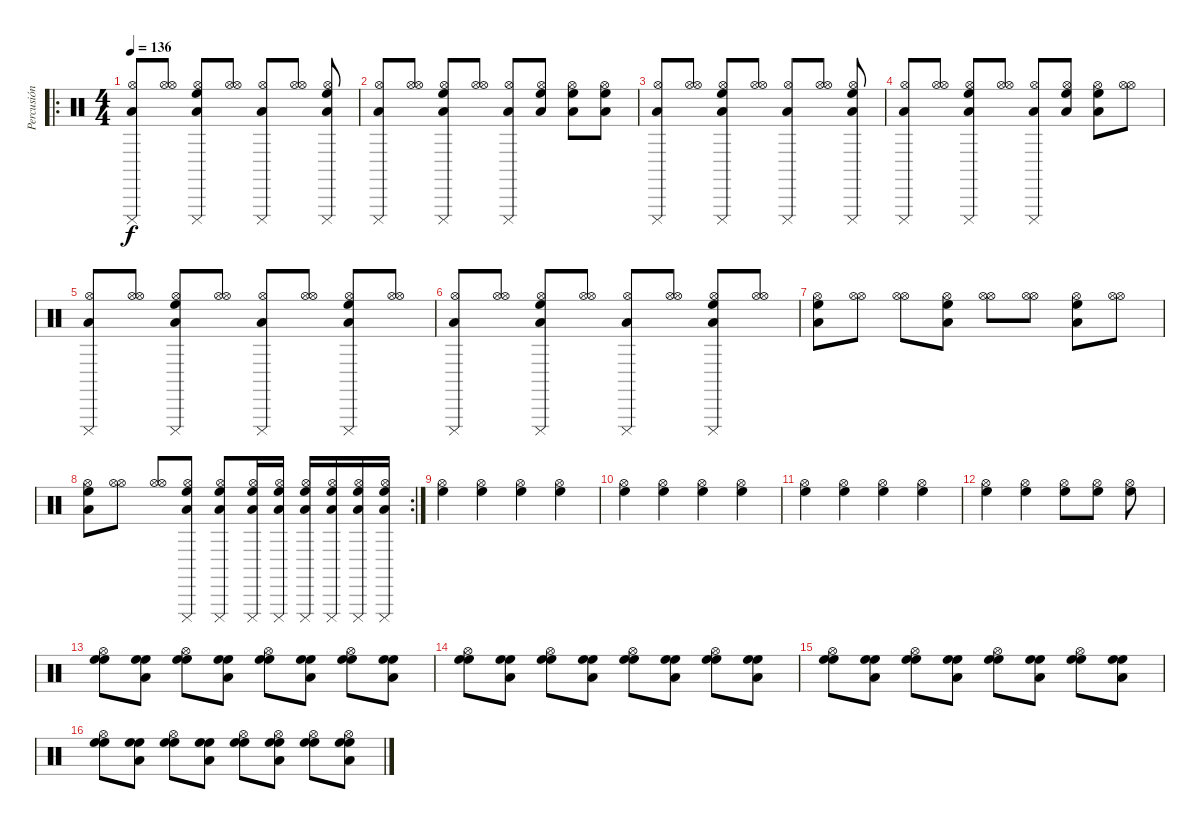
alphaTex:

\track ("Percusión" "Percusión") {instrument percussion}
\staff {score}
\articulation defaults
\ro
\ts (4 4)
\tempo 136
\clef neutral
\ks c
("Cuica (mute)" "Hi-Hat (open)" "Low Tom (hit)").8{dy f} ("Hi-Hat (open)" "Hi-Hat (open)").8 ("Cuica (mute)" "Hi-Hat (open)" "Low Tom (hit)" "High Floor Tom (hit)").8 ("Hi-Hat (open)" "Hi-Hat (open)").8 ("Cuica (mute)" "Hi-Hat (open)" "Low Tom (hit)").8 ("Hi-Hat (open)" "Hi-Hat (open)").8 ("Cuica (mute)" "Hi-Hat (open)" "Low Tom (hit)" "High Floor Tom (hit)").8 |
("Cuica (mute)" "Hi-Hat (open)" "Low Tom (hit)").8 ("Hi-Hat (open)" "Hi-Hat (open)").8 ("Cuica (mute)" "Hi-Hat (open)" "Low Tom (hit)" "High Floor Tom (hit)").8 ("Hi-Hat (open)" "Hi-Hat (open)").8 ("Cuica (mute)" "Hi-Hat (open)" "Low Tom (hit)").8 ("Hi-Hat (open)" "Low Tom (hit)" "High Floor Tom (hit)").8 ("Hi-Hat (open)" "Low Tom (hit)" "High Floor Tom (hit)").8 ("Hi-Hat (open)" "Low Tom (hit)" "High Floor Tom (hit)").8 |
("Cuica (mute)" "Hi-Hat (open)" "Low Tom (hit)").8 ("Hi-Hat (open)" "Hi-Hat (open)").8 ("Cuica (mute)" "Hi-Hat (open)" "Low Tom (hit)" "High Floor Tom (hit)").8 ("Hi-Hat (open)" "Hi-Hat (open)").8 ("Cuica (mute)" "Hi-Hat (open)" "Low Tom (hit)").8 ("Hi-Hat (open)" "Hi-Hat (open)").8 ("Cuica (mute)" "Hi-Hat (open)" "Low Tom (hit)" "High Floor Tom (hit)").8 |
("Cuica (mute)" "Hi-Hat (open)" "Low Tom (hit)").8 ("Hi-Hat (open)" "Hi-Hat (open)").8 ("Cuica (mute)" "Hi-Hat (open)" "Low Tom (hit)" "High Floor Tom (hit)").8 ("Hi-Hat (open)" "Hi-Hat (open)").8 ("Cuica (mute)" "Hi-Hat (open)" "Low Tom (hit)").8 ("Hi-Hat (open)" "Low Tom (hit)" "High Floor Tom (hit)").8 ("Hi-Hat (open)" "Low Tom (hit)" "High Floor Tom (hit)").8 ("Hi-Hat (open)" "Hi-Hat (open)").8 |
("Cuica (mute)" "Hi-Hat (open)" "Low Tom (hit)").8 ("Hi-Hat (open)" "Hi-Hat (open)").8 ("Cuica (mute)" "Hi-Hat (open)" "Low Tom (hit)" "High Floor Tom (hit)").8 ("Hi-Hat (open)" "Hi-Hat (open)").8 ("Cuica (mute)" "Hi-Hat (open)" "Low Tom (hit)").8 ("Hi-Hat (open)" "Hi-Hat (open)").8 ("Cuica (mute)" "Hi-Hat (open)" "Low Tom (hit)" "High Floor Tom (hit)").8 ("Hi-Hat (open)" "Hi-Hat (open)").8 |
("Cuica (mute)" "Hi-Hat (open)" "Low Tom (hit)").8 ("Hi-Hat (open)" "Hi-Hat (open)").8 ("Cuica (mute)" "Hi-Hat (open)" "Low Tom (hit)" "High Floor Tom (hit)").8 ("Hi-Hat (open)" "Hi-Hat (open)").8 ("Cuica (mute)" "Hi-Hat (open)" "Low Tom (hit)").8 ("Hi-Hat (open)" "Hi-Hat (open)").8 ("Cuica (mute)" "Hi-Hat (open)" "Low Tom (hit)" "High Floor Tom (hit)").8 ("Hi-Hat (open)" "Hi-Hat (open)").8 |
("Hi-Hat (open)" "Low Tom (hit)" "High Floor Tom (hit)").8 ("Hi-Hat (open)" "Hi-Hat (open)").8 ("Hi-Hat (open)" "Hi-Hat (open)").8 ("Hi-Hat (open)" "Low Tom (hit)" "High Floor Tom (hit)").8 ("Hi-Hat (open)" "Hi-Hat (open)").8 ("Hi-Hat (open)" "Hi-Hat (open)").8 ("Hi-Hat (open)" "Low Tom (hit)" "High Floor Tom (hit)").8 ("Hi-Hat (open)" "Hi-Hat (open)").8 |
\rc 2
("Hi-Hat (open)" "Low Tom (hit)" "High Floor Tom (hit)").8 ("Hi-Hat (open)" "Hi-Hat (open)").8 ("Hi-Hat (open)" "Hi-Hat (open)").8 ("Cuica (mute)" "Hi-Hat (open)" "Low Tom (hit)" "High Floor Tom (hit)").8 ("Cuica (mute)" "Hi-Hat (open)" "Low Tom (hit)" "High Floor Tom (hit)").8 ("Cuica (mute)" "Hi-Hat (open)" "Low Tom (hit)" "High Floor Tom (hit)").16 ("Cuica (mute)" "Hi-Hat (open)" "Low Tom (hit)" "High Floor Tom (hit)").16 ("Cuica (mute)" "Hi-Hat (open)" "Low Tom (hit)" "High Floor Tom (hit)").16 ("Cuica (mute)" "Hi-Hat (open)" "Low Tom (hit)" "High Floor Tom (hit)").16 ("Cuica (mute)" "Hi-Hat (open)" "Low Tom (hit)" "High Floor Tom (hit)").16 ("Cuica (mute)" "Hi-Hat (open)" "Low Tom (hit)" "High Floor Tom (hit)").16 |
("Hi-Hat (open)" "High Floor Tom (hit)").4 ("Hi-Hat (open)" "High Floor Tom (hit)").4 ("Hi-Hat (open)" "High Floor Tom (hit)").4 ("Hi-Hat (open)" "High Floor Tom (hit)").4 |
("High Floor Tom (hit)" "Hi-Hat (open)").4 ("High Floor Tom (hit)" "Hi-Hat (open)").4 ("High Floor Tom (hit)" "Hi-Hat (open)").4 ("High Floor Tom (hit)" "Hi-Hat (open)").4 |
("Hi-Hat (open)" "High Floor Tom (hit)").4 ("Hi-Hat (open)" "High Floor Tom (hit)").4 ("Hi-Hat (open)" "High Floor Tom (hit)").4 ("Hi-Hat (open)" "High Floor Tom (hit)").4 |
("Hi-Hat (open)" "High Floor Tom (hit)").4 ("Hi-Hat (open)" "High Floor Tom (hit)").4 ("Hi-Hat (open)" "High Floor Tom (hit)").8 ("Hi-Hat (open)" "High Floor Tom (hit)").8 ("Hi-Hat (open)" "High Floor Tom (hit)").8 |
("High Floor Tom (hit)" "Hi-Hat (open)" "High Floor Tom (hit)").8 ("High Floor Tom (hit)" "Low Tom (hit)" "High Floor Tom (hit)").8 ("High Floor Tom (hit)" "Hi-Hat (open)" "High Floor Tom (hit)").8 ("High Floor Tom (hit)" "Low Tom (hit)" "High Floor Tom (hit)").8 ("High Floor Tom (hit)" "Hi-Hat (open)" "High Floor Tom (hit)").8 ("High Floor Tom (hit)" "Low Tom (hit)" "High Floor Tom (hit)").8 ("High Floor Tom (hit)" "Hi-Hat (open)" "High Floor Tom (hit)").8 ("High Floor Tom (hit)" "Low Tom (hit)" "High Floor Tom (hit)").8 |
("High Floor Tom (hit)" "Hi-Hat (open)" "High Floor Tom (hit)").8 ("High Floor Tom (hit)" "Low Tom (hit)" "High Floor Tom (hit)").8 ("High Floor Tom (hit)" "Hi-Hat (open)" "High Floor Tom (hit)").8 ("High Floor Tom (hit)" "Low Tom (hit)" "High Floor Tom (hit)").8 ("High Floor Tom (hit)" "Hi-Hat (open)" "High Floor Tom (hit)").8 ("High Floor Tom (hit)" "Low Tom (hit)" "High Floor Tom (hit)").8 ("High Floor Tom (hit)" "Hi-Hat (open)" "High Floor Tom (hit)").8 ("High Floor Tom (hit)" "Low Tom (hit)" "High Floor Tom (hit)").8 |
("High Floor Tom (hit)" "Hi-Hat (open)" "High Floor Tom (hit)").8 ("High Floor Tom (hit)" "Low Tom (hit)" "High Floor Tom (hit)").8 ("High Floor Tom (hit)" "Hi-Hat (open)" "High Floor Tom (hit)").8 ("High Floor Tom (hit)" "Low Tom (hit)" "High Floor Tom (hit)").8 ("High Floor Tom (hit)" "Hi-Hat (open)" "High Floor Tom (hit)").8 ("High Floor Tom (hit)" "Low Tom (hit)" "High Floor Tom (hit)").8 ("High Floor Tom (hit)" "Hi-Hat (open)" "High Floor Tom (hit)").8 ("High Floor Tom (hit)" "Low Tom (hit)" "High Floor Tom (hit)").8 |
("High Floor Tom (hit)" "Hi-Hat (open)" "High Floor Tom (hit)").8 ("High Floor Tom (hit)" "Low Tom (hit)" "High Floor Tom (hit)").8 ("High Floor Tom (hit)" "Hi-Hat (open)" "High Floor Tom (hit)").8 ("High Floor Tom (hit)" "Low Tom (hit)" "High Floor Tom (hit)").8 ("High Floor Tom (hit)" "Hi-Hat (open)" "High Floor Tom (hit)").8 ("High Floor Tom (hit)" "Hi-Hat (open)" "Low Tom (hit)" "High Floor Tom (hit)").8 ("High Floor Tom (hit)" "Hi-Hat (open)" "High Floor Tom (hit)").8 ("High Floor Tom (hit)" "Hi-Hat (open)" "Low Tom (hit)" "High Floor Tom (hit)").8
